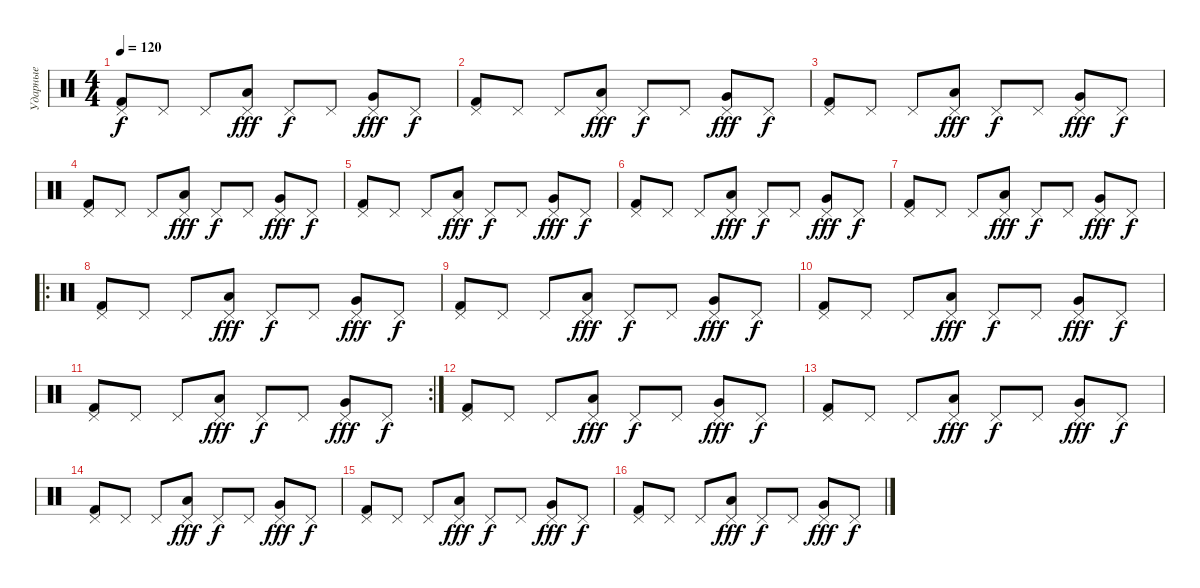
\track ("Ударные" "Ударные") {instrument percussion}
\staff {score}
\articulation defaults
\ts (4 4)
\tempo 120
\clef neutral
\ks c
("Pedal Hi-Hat (hit)" "Kick (hit) 2").8{dy f} "Pedal Hi-Hat (hit)".8 "Pedal Hi-Hat (hit)".8 ("Pedal Hi-Hat (hit)" "Low Floor Tom (hit)").8{dy fff} "Pedal Hi-Hat (hit)".8{dy f} "Pedal Hi-Hat (hit)".8 ("Pedal Hi-Hat (hit)" "Very Low Tom (hit)").8{dy fff} "Pedal Hi-Hat (hit)".8{dy f} |
("Pedal Hi-Hat (hit)" "Kick (hit) 2").8 "Pedal Hi-Hat (hit)".8 "Pedal Hi-Hat (hit)".8 ("Pedal Hi-Hat (hit)" "Low Floor Tom (hit)").8{dy fff} "Pedal Hi-Hat (hit)".8{dy f} "Pedal Hi-Hat (hit)".8 ("Pedal Hi-Hat (hit)" "Very Low Tom (hit)").8{dy fff} "Pedal Hi-Hat (hit)".8{dy f} |
("Pedal Hi-Hat (hit)" "Kick (hit) 2").8 "Pedal Hi-Hat (hit)".8 "Pedal Hi-Hat (hit)".8 ("Pedal Hi-Hat (hit)" "Low Floor Tom (hit)").8{dy fff} "Pedal Hi-Hat (hit)".8{dy f} "Pedal Hi-Hat (hit)".8 ("Pedal Hi-Hat (hit)" "Very Low Tom (hit)").8{dy fff} "Pedal Hi-Hat (hit)".8{dy f} |
("Pedal Hi-Hat (hit)" "Kick (hit) 2").8 "Pedal Hi-Hat (hit)".8 "Pedal Hi-Hat (hit)".8 ("Pedal Hi-Hat (hit)" "Low Floor Tom (hit)").8{dy fff} "Pedal Hi-Hat (hit)".8{dy f} "Pedal Hi-Hat (hit)".8 ("Pedal Hi-Hat (hit)" "Very Low Tom (hit)").8{dy fff} "Pedal Hi-Hat (hit)".8{dy f} |
("Pedal Hi-Hat (hit)" "Kick (hit) 2").8 "Pedal Hi-Hat (hit)".8 "Pedal Hi-Hat (hit)".8 ("Pedal Hi-Hat (hit)" "Low Floor Tom (hit)").8{dy fff} "Pedal Hi-Hat (hit)".8{dy f} "Pedal Hi-Hat (hit)".8 ("Pedal Hi-Hat (hit)" "Very Low Tom (hit)").8{dy fff} "Pedal Hi-Hat (hit)".8{dy f} |
("Pedal Hi-Hat (hit)" "Kick (hit) 2").8 "Pedal Hi-Hat (hit)".8 "Pedal Hi-Hat (hit)".8 ("Pedal Hi-Hat (hit)" "Low Floor Tom (hit)").8{dy fff} "Pedal Hi-Hat (hit)".8{dy f} "Pedal Hi-Hat (hit)".8 ("Pedal Hi-Hat (hit)" "Very Low Tom (hit)").8{dy fff} "Pedal Hi-Hat (hit)".8{dy f} |
("Pedal Hi-Hat (hit)" "Kick (hit) 2").8 "Pedal Hi-Hat (hit)".8 "Pedal Hi-Hat (hit)".8 ("Pedal Hi-Hat (hit)" "Low Floor Tom (hit)").8{dy fff} "Pedal Hi-Hat (hit)".8{dy f} "Pedal Hi-Hat (hit)".8 ("Pedal Hi-Hat (hit)" "Very Low Tom (hit)").8{dy fff} "Pedal Hi-Hat (hit)".8{dy f} |
\ro
("Pedal Hi-Hat (hit)" "Kick (hit) 2").8 "Pedal Hi-Hat (hit)".8 "Pedal Hi-Hat (hit)".8 ("Pedal Hi-Hat (hit)" "Low Floor Tom (hit)").8{dy fff} "Pedal Hi-Hat (hit)".8{dy f} "Pedal Hi-Hat (hit)".8 ("Pedal Hi-Hat (hit)" "Very Low Tom (hit)").8{dy fff} "Pedal Hi-Hat (hit)".8{dy f} |
("Pedal Hi-Hat (hit)" "Kick (hit) 2").8 "Pedal Hi-Hat (hit)".8 "Pedal Hi-Hat (hit)".8 ("Pedal Hi-Hat (hit)" "Low Floor Tom (hit)").8{dy fff} "Pedal Hi-Hat (hit)".8{dy f} "Pedal Hi-Hat (hit)".8 ("Pedal Hi-Hat (hit)" "Very Low Tom (hit)").8{dy fff} "Pedal Hi-Hat (hit)".8{dy f} |
("Pedal Hi-Hat (hit)" "Kick (hit) 2").8 "Pedal Hi-Hat (hit)".8 "Pedal Hi-Hat (hit)".8 ("Pedal Hi-Hat (hit)" "Low Floor Tom (hit)").8{dy fff} "Pedal Hi-Hat (hit)".8{dy f} "Pedal Hi-Hat (hit)".8 ("Pedal Hi-Hat (hit)" "Very Low Tom (hit)").8{dy fff} "Pedal Hi-Hat (hit)".8{dy f} |
\rc 2
("Pedal Hi-Hat (hit)" "Kick (hit) 2").8 "Pedal Hi-Hat (hit)".8 "Pedal Hi-Hat (hit)".8 ("Pedal Hi-Hat (hit)" "Low Floor Tom (hit)").8{dy fff} "Pedal Hi-Hat (hit)".8{dy f} "Pedal Hi-Hat (hit)".8 ("Pedal Hi-Hat (hit)" "Very Low Tom (hit)").8{dy fff} "Pedal Hi-Hat (hit)".8{dy f} |
("Pedal Hi-Hat (hit)" "Kick (hit) 2").8 "Pedal Hi-Hat (hit)".8 "Pedal Hi-Hat (hit)".8 ("Pedal Hi-Hat (hit)" "Low Floor Tom (hit)").8{dy fff} "Pedal Hi-Hat (hit)".8{dy f} "Pedal Hi-Hat (hit)".8 ("Pedal Hi-Hat (hit)" "Very Low Tom (hit)").8{dy fff} "Pedal Hi-Hat (hit)".8{dy f} |
("Pedal Hi-Hat (hit)" "Kick (hit) 2").8 "Pedal Hi-Hat (hit)".8 "Pedal Hi-Hat (hit)".8 ("Pedal Hi-Hat (hit)" "Low Floor Tom (hit)").8{dy fff} "Pedal Hi-Hat (hit)".8{dy f} "Pedal Hi-Hat (hit)".8 ("Pedal Hi-Hat (hit)" "Very Low Tom (hit)").8{dy fff} "Pedal Hi-Hat (hit)".8{dy f} |
("Pedal Hi-Hat (hit)" "Kick (hit) 2").8 "Pedal Hi-Hat (hit)".8 "Pedal Hi-Hat (hit)".8 ("Pedal Hi-Hat (hit)" "Low Floor Tom (hit)").8{dy fff} "Pedal Hi-Hat (hit)".8{dy f} "Pedal Hi-Hat (hit)".8 ("Pedal Hi-Hat (hit)" "Very Low Tom (hit)").8{dy fff} "Pedal Hi-Hat (hit)".8{dy f} |
("Pedal Hi-Hat (hit)" "Kick (hit) 2").8 "Pedal Hi-Hat (hit)".8 "Pedal Hi-Hat (hit)".8 ("Pedal Hi-Hat (hit)" "Low Floor Tom (hit)").8{dy fff} "Pedal Hi-Hat (hit)".8{dy f} "Pedal Hi-Hat (hit)".8 ("Pedal Hi-Hat (hit)" "Very Low Tom (hit)").8{dy fff} "Pedal Hi-Hat (hit)".8{dy f} |
("Pedal Hi-Hat (hit)" "Kick (hit) 2").8 "Pedal Hi-Hat (hit)".8 "Pedal Hi-Hat (hit)".8 ("Pedal Hi-Hat (hit)" "Low Floor Tom (hit)").8{dy fff} "Pedal Hi-Hat (hit)".8{dy f} "Pedal Hi-Hat (hit)".8 ("Pedal Hi-Hat (hit)" "Very Low Tom (hit)").8{dy fff} "Pedal Hi-Hat (hit)".8{dy f}
